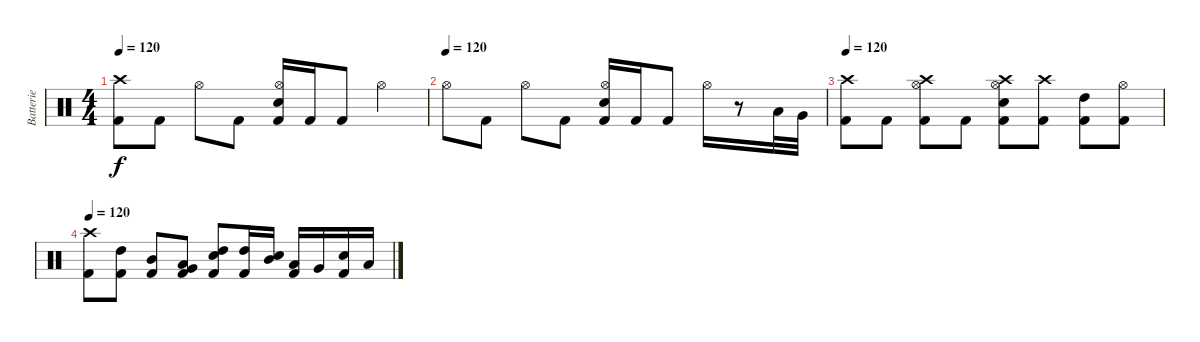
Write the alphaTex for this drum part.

\track ("Batterie" "Batterie") {instrument percussion}
\staff {score}
\articulation defaults
\ts (4 4)
\tempo 120
\clef neutral
\ks c
("Crash high (hit)" "Kick (hit) 2").8{dy f} "Kick (hit) 2".8 "Hi-Hat (open)".8 "Kick (hit) 2".8 ("Hi-Hat (open)" "Electric Snare (hit)" "Kick (hit) 2").16 "Kick (hit) 2".16 "Kick (hit) 2".8 "Hi-Hat (open)".4 |
\tempo (120)
"Hi-Hat (open)".8 "Kick (hit) 2".8 "Hi-Hat (open)".8 "Kick (hit) 2".8 ("Hi-Hat (open)" "Electric Snare (hit)" "Kick (hit) 2").16 "Kick (hit) 2".16 "Kick (hit) 2".8 "Hi-Hat (open)".16 r.8 "Low Tom (hit)".32 "Very Low Tom (hit)".32 |
\tempo 120
("Crash high (hit)" "Kick (hit) 2").8 "Kick (hit) 2".8 ("Crash high (hit)" "Hi-Hat (open)" "Kick (hit) 2").8 "Kick (hit) 2".8 ("Crash high (hit)" "Hi-Hat (open)" "Electric Snare (hit)" "Kick (hit) 2").8 ("Crash high (hit)" "Kick (hit) 2").8 ("High Tom (hit)" "Kick (hit) 2").8 ("Hi-Hat (open)" "Kick (hit) 2").8 |
\tempo 120
("Crash high (hit)" "Kick (hit) 2").8 ("High Tom (hit)" "Kick (hit) 2").8 ("Mid Tom (hit)" "Kick (hit) 2").8 ("Very Low Tom (hit)" "Low Tom (hit)" "Kick (hit) 2").8 ("High Tom (hit)" "Electric Snare (hit)" "Kick (hit) 2").8 ("High Tom (hit)" "Kick (hit) 2").16 ("Mid Tom (hit)" "Electric Snare (hit)").16 ("Low Tom (hit)" "Kick (hit) 2").16 "Very Low Tom (hit)".16 ("Electric Snare (hit)" "Kick (hit) 2").16 "Low Floor Tom (hit)".16
